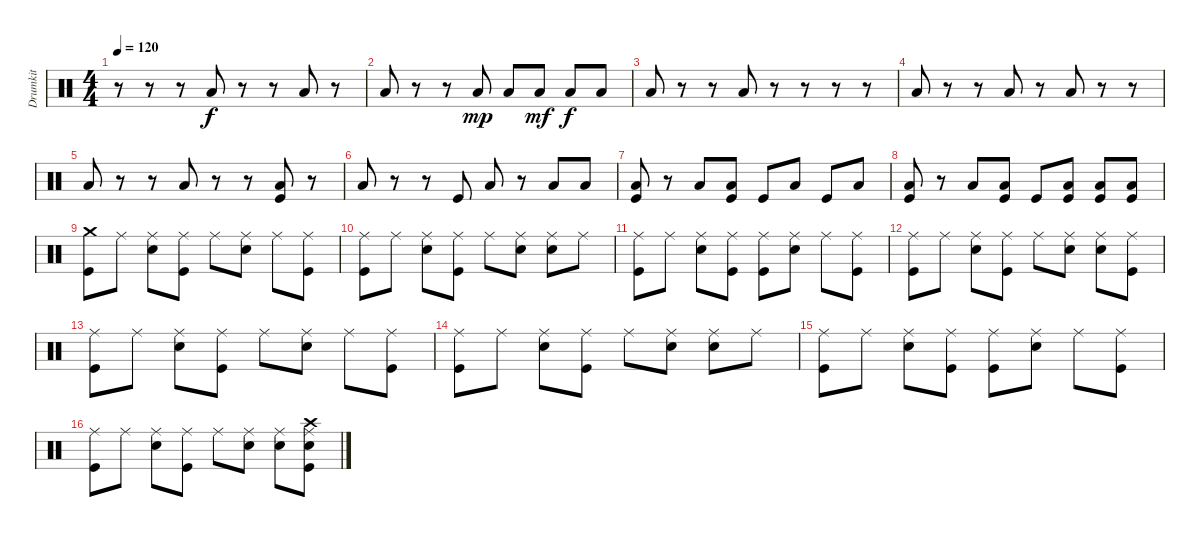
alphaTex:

\track ("Drumkit" "Drumkit") {instrument percussion}
\staff {score}
\articulation defaults
\ts (4 4)
\tempo 120
\clef neutral
\ks c
r.8{dy f} r.8 r.8 "Low Tom (hit)".8 r.8 r.8 "Low Tom (hit)".8 r.8 |
"Low Tom (hit)".8 r.8 r.8 "Low Floor Tom (hit)".8{dy mp} "Low Floor Tom (hit)".8 "Low Floor Tom (hit)".8{dy mf} "Low Floor Tom (hit)".8{dy f} "Low Floor Tom (hit)".8 |
"Low Tom (hit)".8 r.8 r.8 "Low Floor Tom (hit)".8 r.8 r.8 r.8 r.8 |
"Low Tom (hit)".8 r.8 r.8 "Low Tom (hit)".8 r.8 "Low Floor Tom (hit)".8 r.8 r.8 |
"Low Tom (hit)".8 r.8 r.8 "Low Tom (hit)".8 r.8 r.8 ("Kick (hit)" "Low Tom (hit)").8 r.8 |
"Low Tom (hit)".8 r.8 r.8 "Kick (hit)".8 "Low Tom (hit)".8 r.8 "Low Floor Tom (hit)".8 "Low Floor Tom (hit)".8 |
("Low Tom (hit)" "Kick (hit)").8 r.8 "Low Floor Tom (hit)".8 ("Low Floor Tom (hit)" "Kick (hit)").8 "Kick (hit)".8 "Low Floor Tom (hit)".8 "Kick (hit)".8 "Low Floor Tom (hit)".8 |
("Low Tom (hit)" "Kick (hit)").8 r.8 "Low Floor Tom (hit)".8 ("Low Floor Tom (hit)" "Kick (hit)").8 "Kick (hit)".8 ("Low Floor Tom (hit)" "Kick (hit)").8 ("Kick (hit)" "Low Floor Tom (hit)").8 ("Low Floor Tom (hit)" "Kick (hit)").8 |
("Kick (hit)" "Crash medium (hit)").8 "Ride (middle)".8 ("Snare (hit) 2" "Ride (middle)").8 ("Kick (hit)" "Ride (middle)").8 "Ride (middle)".8 ("Snare (hit) 2" "Ride (middle)").8 "Ride (middle)".8 ("Ride (middle)" "Kick (hit)").8 |
("Kick (hit)" "Ride (middle)").8 "Ride (middle)".8 ("Snare (hit) 2" "Ride (middle)").8 ("Kick (hit)" "Ride (middle)").8 "Ride (middle)".8 ("Ride (middle)" "Snare (hit) 2").8 ("Ride (middle)" "Snare (hit) 2").8 "Ride (middle)".8 |
("Kick (hit)" "Ride (middle)").8 "Ride (middle)".8 ("Snare (hit) 2" "Ride (middle)").8 ("Kick (hit)" "Ride (middle)").8 ("Ride (middle)" "Kick (hit)").8 ("Snare (hit) 2" "Ride (middle)").8 "Ride (middle)".8 ("Ride (middle)" "Kick (hit)").8 |
("Kick (hit)" "Ride (middle)").8 "Ride (middle)".8 ("Snare (hit) 2" "Ride (middle)").8 ("Kick (hit)" "Ride (middle)").8 "Ride (middle)".8 ("Ride (middle)" "Snare (hit) 2").8 ("Ride (middle)" "Snare (hit) 2").8 ("Ride (middle)" "Kick (hit)").8 |
("Kick (hit)" "Ride (middle)").8 "Ride (middle)".8 ("Snare (hit) 2" "Ride (middle)").8 ("Kick (hit)" "Ride (middle)").8 "Ride (middle)".8 ("Snare (hit) 2" "Ride (middle)").8 "Ride (middle)".8 ("Ride (middle)" "Kick (hit)").8 |
("Kick (hit)" "Ride (middle)").8 "Ride (middle)".8 ("Snare (hit) 2" "Ride (middle)").8 ("Kick (hit)" "Ride (middle)").8 "Ride (middle)".8 ("Ride (middle)" "Snare (hit) 2").8 ("Ride (middle)" "Snare (hit) 2").8 "Ride (middle)".8 |
("Kick (hit)" "Ride (middle)").8 "Ride (middle)".8 ("Snare (hit) 2" "Ride (middle)").8 ("Kick (hit)" "Ride (middle)").8 ("Ride (middle)" "Kick (hit)").8 ("Snare (hit) 2" "Ride (middle)").8 "Ride (middle)".8 ("Ride (middle)" "Kick (hit)").8 |
("Kick (hit)" "Ride (middle)").8 "Ride (middle)".8 ("Snare (hit) 2" "Ride (middle)").8 ("Kick (hit)" "Ride (middle)").8 "Ride (middle)".8 ("Ride (middle)" "Snare (hit) 2").8 ("Ride (middle)" "Snare (hit) 2").8 ("Ride (middle)" "Kick (hit)" "Crash high (hit)" "Snare (hit) 2").8
